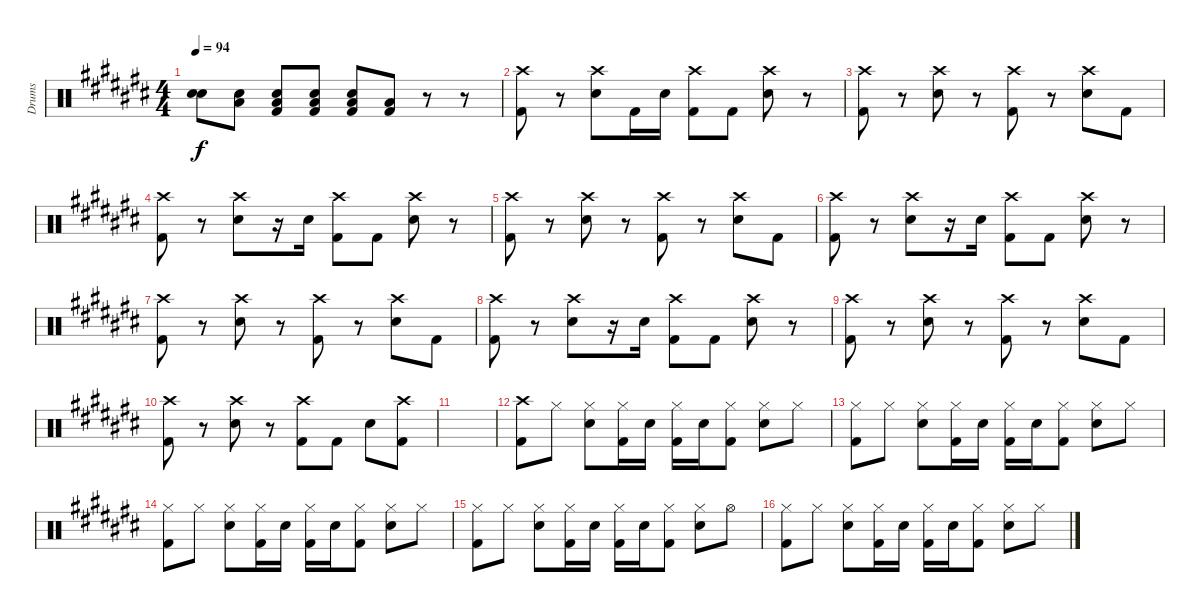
\track ("Drums" "Drums") {instrument percussion}
\staff {score}
\articulation defaults
\ts (4 4)
\tempo 94
\clef neutral
\ks c#
("Snare (hit) 2" "Snare (hit) 2").8{dy f} ("Snare (hit) 2" "Low Floor Tom (hit)").8 ("Snare (hit) 2" "Low Floor Tom (hit)" "Kick (hit) 2").8 ("Snare (hit) 2" "Low Floor Tom (hit)" "Kick (hit) 2").8 ("Snare (hit) 2" "Low Floor Tom (hit)" "Kick (hit) 2").8 ("Low Floor Tom (hit)" "Kick (hit) 2").8 r.8 r.8 |
("Crash high (hit)" "Kick (hit) 2").8 r.8 ("Crash high (hit)" "Snare (hit) 2").8 "Kick (hit) 2".16 "Snare (hit) 2".16 ("Crash high (hit)" "Kick (hit) 2").8 "Kick (hit) 2".8 ("Crash high (hit)" "Snare (hit) 2").8 r.8 |
("Crash high (hit)" "Kick (hit) 2").8 r.8 ("Crash high (hit)" "Snare (hit) 2").8 r.8 ("Crash high (hit)" "Kick (hit) 2").8 r.8 ("Crash high (hit)" "Snare (hit) 2").8 "Kick (hit) 2".8 |
("Crash high (hit)" "Kick (hit) 2").8 r.8 ("Crash high (hit)" "Snare (hit) 2").8 r.16 "Snare (hit) 2".16 ("Crash high (hit)" "Kick (hit) 2").8 "Kick (hit) 2".8 ("Crash high (hit)" "Snare (hit) 2").8 r.8 |
("Crash high (hit)" "Kick (hit) 2").8 r.8 ("Crash high (hit)" "Snare (hit) 2").8 r.8 ("Crash high (hit)" "Kick (hit) 2").8 r.8 ("Crash high (hit)" "Snare (hit) 2").8 "Kick (hit) 2".8 |
("Crash high (hit)" "Kick (hit) 2").8 r.8 ("Crash high (hit)" "Snare (hit) 2").8 r.16 "Snare (hit) 2".16 ("Crash high (hit)" "Kick (hit) 2").8 "Kick (hit) 2".8 ("Crash high (hit)" "Snare (hit) 2").8 r.8 |
("Crash high (hit)" "Kick (hit) 2").8 r.8 ("Crash high (hit)" "Snare (hit) 2").8 r.8 ("Crash high (hit)" "Kick (hit) 2").8 r.8 ("Crash high (hit)" "Snare (hit) 2").8 "Kick (hit) 2".8 |
("Crash high (hit)" "Kick (hit) 2").8 r.8 ("Crash high (hit)" "Snare (hit) 2").8 r.16 "Snare (hit) 2".16 ("Crash high (hit)" "Kick (hit) 2").8 "Kick (hit) 2".8 ("Crash high (hit)" "Snare (hit) 2").8 r.8 |
("Crash high (hit)" "Kick (hit) 2").8 r.8 ("Crash high (hit)" "Snare (hit) 2").8 r.8 ("Crash high (hit)" "Kick (hit) 2").8 r.8 ("Crash high (hit)" "Snare (hit) 2").8 "Kick (hit) 2".8 |
("Crash high (hit)" "Kick (hit) 2").8 r.8 ("Crash high (hit)" "Snare (hit) 2").8 r.8 ("Crash high (hit)" "Kick (hit) 2").8 "Kick (hit) 2".8 "Snare (hit) 2".8 ("Crash high (hit)" "Kick (hit) 2").8 |
|
("Crash high (hit)" "Kick (hit) 2").8 "Hi-Hat (closed)".8 ("Hi-Hat (closed)" "Snare (hit) 2").8 ("Hi-Hat (closed)" "Kick (hit) 2").16 "Snare (hit) 2".16 ("Hi-Hat (closed)" "Kick (hit) 2").16 "Snare (hit) 2".16 ("Hi-Hat (closed)" "Kick (hit) 2").8 ("Hi-Hat (closed)" "Snare (hit) 2").8 "Hi-Hat (closed)".8 |
("Hi-Hat (closed)" "Kick (hit) 2").8 "Hi-Hat (closed)".8 ("Hi-Hat (closed)" "Snare (hit) 2").8 ("Hi-Hat (closed)" "Kick (hit) 2").16 "Snare (hit) 2".16 ("Hi-Hat (closed)" "Kick (hit) 2").16 "Snare (hit) 2".16 ("Hi-Hat (closed)" "Kick (hit) 2").8 ("Hi-Hat (closed)" "Snare (hit) 2").8 "Hi-Hat (closed)".8 |
("Hi-Hat (closed)" "Kick (hit) 2").8 "Hi-Hat (closed)".8 ("Hi-Hat (closed)" "Snare (hit) 2").8 ("Hi-Hat (closed)" "Kick (hit) 2").16 "Snare (hit) 2".16 ("Hi-Hat (closed)" "Kick (hit) 2").16 "Snare (hit) 2".16 ("Hi-Hat (closed)" "Kick (hit) 2").8 ("Hi-Hat (closed)" "Snare (hit) 2").8 "Hi-Hat (closed)".8 |
("Hi-Hat (closed)" "Kick (hit) 2").8 "Hi-Hat (closed)".8 ("Hi-Hat (closed)" "Snare (hit) 2").8 ("Hi-Hat (closed)" "Kick (hit) 2").16 "Snare (hit) 2".16 ("Hi-Hat (closed)" "Kick (hit) 2").16 "Snare (hit) 2".16 ("Hi-Hat (closed)" "Kick (hit) 2").8 ("Hi-Hat (closed)" "Snare (hit) 2").8 "Hi-Hat (open)".8 |
("Hi-Hat (closed)" "Kick (hit) 2").8 "Hi-Hat (closed)".8 ("Hi-Hat (closed)" "Snare (hit) 2").8 ("Hi-Hat (closed)" "Kick (hit) 2").16 "Snare (hit) 2".16 ("Hi-Hat (closed)" "Kick (hit) 2").16 "Snare (hit) 2".16 ("Hi-Hat (closed)" "Kick (hit) 2").8 ("Hi-Hat (closed)" "Snare (hit) 2").8 "Hi-Hat (closed)".8
